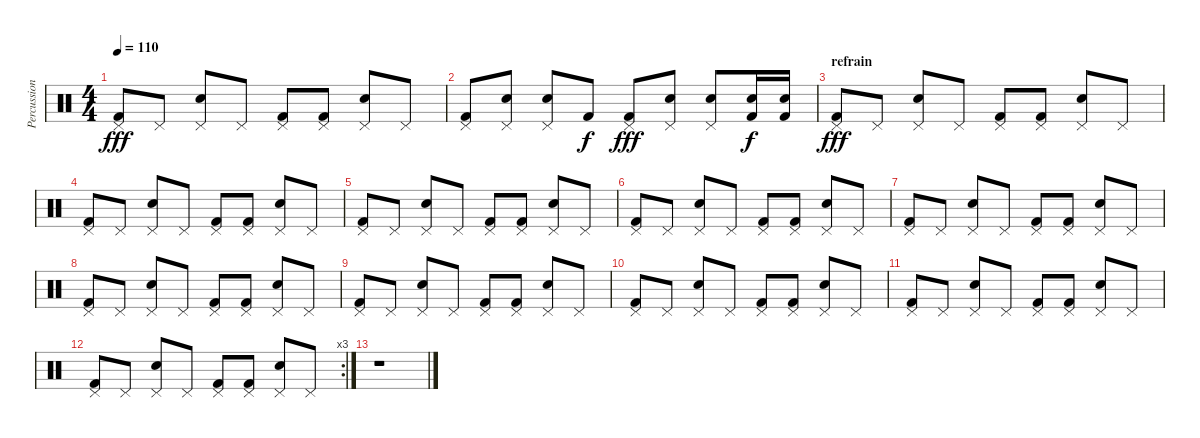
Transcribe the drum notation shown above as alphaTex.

\track ("Percussions" "Percussion") {instrument percussion}
\staff {score}
\articulation defaults
\ts (4 4)
\tempo 110
\clef neutral
\ks c
("Pedal Hi-Hat (hit)" "Kick (hit) 2").8{dy fff} "Pedal Hi-Hat (hit)".8 ("Pedal Hi-Hat (hit)" "Electric Snare (hit)").8 "Pedal Hi-Hat (hit)".8 ("Pedal Hi-Hat (hit)" "Kick (hit) 2").8 ("Pedal Hi-Hat (hit)" "Kick (hit) 2").8 ("Pedal Hi-Hat (hit)" "Electric Snare (hit)").8 "Pedal Hi-Hat (hit)".8 |
("Pedal Hi-Hat (hit)" "Kick (hit) 2").8 ("Pedal Hi-Hat (hit)" "Electric Snare (hit)").8 ("Pedal Hi-Hat (hit)" "Electric Snare (hit)").8 "Kick (hit) 2".8{dy f} ("Pedal Hi-Hat (hit)" "Kick (hit) 2").8{dy fff} ("Pedal Hi-Hat (hit)" "Electric Snare (hit)").8 ("Pedal Hi-Hat (hit)" "Electric Snare (hit)").8 ("Electric Snare (hit)" "Kick (hit) 2").16{dy f} ("Electric Snare (hit)" "Kick (hit) 2").16 |
\section ("" "refrain")
("Pedal Hi-Hat (hit)" "Kick (hit) 2").8{dy fff} "Pedal Hi-Hat (hit)".8 ("Pedal Hi-Hat (hit)" "Electric Snare (hit)").8 "Pedal Hi-Hat (hit)".8 ("Pedal Hi-Hat (hit)" "Kick (hit) 2").8 ("Pedal Hi-Hat (hit)" "Kick (hit) 2").8 ("Pedal Hi-Hat (hit)" "Electric Snare (hit)").8 "Pedal Hi-Hat (hit)".8 |
("Pedal Hi-Hat (hit)" "Kick (hit) 2").8 "Pedal Hi-Hat (hit)".8 ("Pedal Hi-Hat (hit)" "Electric Snare (hit)").8 "Pedal Hi-Hat (hit)".8 ("Pedal Hi-Hat (hit)" "Kick (hit) 2").8 ("Pedal Hi-Hat (hit)" "Kick (hit) 2").8 ("Pedal Hi-Hat (hit)" "Electric Snare (hit)").8 "Pedal Hi-Hat (hit)".8 |
("Pedal Hi-Hat (hit)" "Kick (hit) 2").8 "Pedal Hi-Hat (hit)".8 ("Pedal Hi-Hat (hit)" "Electric Snare (hit)").8 "Pedal Hi-Hat (hit)".8 ("Pedal Hi-Hat (hit)" "Kick (hit) 2").8 ("Pedal Hi-Hat (hit)" "Kick (hit) 2").8 ("Pedal Hi-Hat (hit)" "Electric Snare (hit)").8 "Pedal Hi-Hat (hit)".8 |
("Pedal Hi-Hat (hit)" "Kick (hit) 2").8 "Pedal Hi-Hat (hit)".8 ("Pedal Hi-Hat (hit)" "Electric Snare (hit)").8 "Pedal Hi-Hat (hit)".8 ("Pedal Hi-Hat (hit)" "Kick (hit) 2").8 ("Pedal Hi-Hat (hit)" "Kick (hit) 2").8 ("Pedal Hi-Hat (hit)" "Electric Snare (hit)").8 "Pedal Hi-Hat (hit)".8 |
("Pedal Hi-Hat (hit)" "Kick (hit) 2").8 "Pedal Hi-Hat (hit)".8 ("Pedal Hi-Hat (hit)" "Electric Snare (hit)").8 "Pedal Hi-Hat (hit)".8 ("Pedal Hi-Hat (hit)" "Kick (hit) 2").8 ("Pedal Hi-Hat (hit)" "Kick (hit) 2").8 ("Pedal Hi-Hat (hit)" "Electric Snare (hit)").8 "Pedal Hi-Hat (hit)".8 |
("Pedal Hi-Hat (hit)" "Kick (hit) 2").8 "Pedal Hi-Hat (hit)".8 ("Pedal Hi-Hat (hit)" "Electric Snare (hit)").8 "Pedal Hi-Hat (hit)".8 ("Pedal Hi-Hat (hit)" "Kick (hit) 2").8 ("Pedal Hi-Hat (hit)" "Kick (hit) 2").8 ("Pedal Hi-Hat (hit)" "Electric Snare (hit)").8 "Pedal Hi-Hat (hit)".8 |
("Pedal Hi-Hat (hit)" "Kick (hit) 2").8 "Pedal Hi-Hat (hit)".8 ("Pedal Hi-Hat (hit)" "Electric Snare (hit)").8 "Pedal Hi-Hat (hit)".8 ("Pedal Hi-Hat (hit)" "Kick (hit) 2").8 ("Pedal Hi-Hat (hit)" "Kick (hit) 2").8 ("Pedal Hi-Hat (hit)" "Electric Snare (hit)").8 "Pedal Hi-Hat (hit)".8 |
("Pedal Hi-Hat (hit)" "Kick (hit) 2").8 "Pedal Hi-Hat (hit)".8 ("Pedal Hi-Hat (hit)" "Electric Snare (hit)").8 "Pedal Hi-Hat (hit)".8 ("Pedal Hi-Hat (hit)" "Kick (hit) 2").8 ("Pedal Hi-Hat (hit)" "Kick (hit) 2").8 ("Pedal Hi-Hat (hit)" "Electric Snare (hit)").8 "Pedal Hi-Hat (hit)".8 |
("Pedal Hi-Hat (hit)" "Kick (hit) 2").8 "Pedal Hi-Hat (hit)".8 ("Pedal Hi-Hat (hit)" "Electric Snare (hit)").8 "Pedal Hi-Hat (hit)".8 ("Pedal Hi-Hat (hit)" "Kick (hit) 2").8 ("Pedal Hi-Hat (hit)" "Kick (hit) 2").8 ("Pedal Hi-Hat (hit)" "Electric Snare (hit)").8 "Pedal Hi-Hat (hit)".8 |
\rc 3
("Pedal Hi-Hat (hit)" "Kick (hit) 2").8 "Pedal Hi-Hat (hit)".8 ("Pedal Hi-Hat (hit)" "Electric Snare (hit)").8 "Pedal Hi-Hat (hit)".8 ("Pedal Hi-Hat (hit)" "Kick (hit) 2").8 ("Pedal Hi-Hat (hit)" "Kick (hit) 2").8 ("Pedal Hi-Hat (hit)" "Electric Snare (hit)").8 "Pedal Hi-Hat (hit)".8 |
r.1
